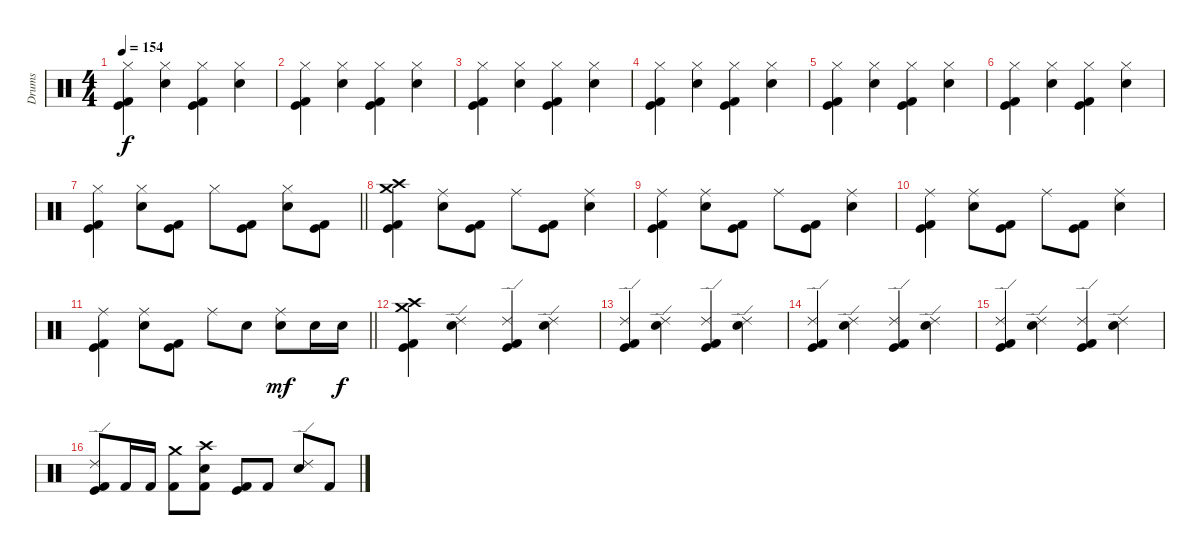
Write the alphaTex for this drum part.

\track ("Drums" "Drums") {instrument percussion}
\staff {score}
\articulation defaults
\ts (4 4)
\tempo 154
\clef neutral
\ks c
("Hi-Hat (closed)" "Kick (hit)" "Kick (hit) 2").4{dy f} ("Hi-Hat (closed)" "Snare (hit) 2").4 ("Hi-Hat (closed)" "Kick (hit)" "Kick (hit) 2").4 ("Hi-Hat (closed)" "Snare (hit) 2").4 |
("Hi-Hat (closed)" "Kick (hit)" "Kick (hit) 2").4 ("Hi-Hat (closed)" "Snare (hit) 2").4 ("Hi-Hat (closed)" "Kick (hit)" "Kick (hit) 2").4 ("Hi-Hat (closed)" "Snare (hit) 2").4 |
("Hi-Hat (closed)" "Kick (hit)" "Kick (hit) 2").4 ("Hi-Hat (closed)" "Snare (hit) 2").4 ("Hi-Hat (closed)" "Kick (hit)" "Kick (hit) 2").4 ("Hi-Hat (closed)" "Snare (hit) 2").4 |
("Hi-Hat (closed)" "Kick (hit)" "Kick (hit) 2").4 ("Hi-Hat (closed)" "Snare (hit) 2").4 ("Hi-Hat (closed)" "Kick (hit)" "Kick (hit) 2").4 ("Hi-Hat (closed)" "Snare (hit) 2").4 |
("Hi-Hat (closed)" "Kick (hit)" "Kick (hit) 2").4 ("Hi-Hat (closed)" "Snare (hit) 2").4 ("Hi-Hat (closed)" "Kick (hit)" "Kick (hit) 2").4 ("Hi-Hat (closed)" "Snare (hit) 2").4 |
("Hi-Hat (closed)" "Kick (hit)" "Kick (hit) 2").4 ("Hi-Hat (closed)" "Snare (hit) 2").4 ("Hi-Hat (closed)" "Kick (hit)" "Kick (hit) 2").4 ("Hi-Hat (closed)" "Snare (hit) 2").4 |
\barLineRight lightlight
("Hi-Hat (closed)" "Kick (hit)" "Kick (hit) 2").4 ("Hi-Hat (closed)" "Snare (hit) 2").8 ("Kick (hit)" "Kick (hit) 2").8 "Hi-Hat (closed)".8 ("Kick (hit)" "Kick (hit) 2").8 ("Hi-Hat (closed)" "Snare (hit) 2").8 ("Kick (hit)" "Kick (hit) 2").8 |
("Crash medium (hit)" "Crash high (hit)" "Kick (hit)" "Kick (hit) 2").4 ("Ride (middle)" "Snare (hit) 2").8 ("Kick (hit)" "Kick (hit) 2").8 "Ride (middle)".8 ("Kick (hit)" "Kick (hit) 2").8 ("Ride (middle)" "Snare (hit) 2").4 |
("Ride (middle)" "Kick (hit)" "Kick (hit) 2").4 ("Ride (middle)" "Snare (hit) 2").8 ("Kick (hit)" "Kick (hit) 2").8 "Ride (middle)".8 ("Kick (hit)" "Kick (hit) 2").8 ("Ride (middle)" "Snare (hit) 2").4 |
("Ride (middle)" "Kick (hit)" "Kick (hit) 2").4 ("Ride (middle)" "Snare (hit) 2").8 ("Kick (hit)" "Kick (hit) 2").8 "Ride (middle)".8 ("Kick (hit)" "Kick (hit) 2").8 ("Ride (middle)" "Snare (hit) 2").4 |
\barLineRight lightlight
("Ride (middle)" "Kick (hit)" "Kick (hit) 2").4 ("Ride (middle)" "Snare (hit) 2").8 ("Kick (hit)" "Kick (hit) 2").8 "Ride (middle)".8 "Snare (hit) 2".8 ("Ride (middle)" "Snare (hit) 2").8{dy mf} "Snare (hit) 2".16 "Snare (hit) 2".16{dy f} |
("Crash medium (hit)" "Crash high (hit)" "Kick (hit)" "Kick (hit) 2").4 ("Ride (edge) 2" "Snare (hit) 2").4 ("Ride (edge) 2" "Kick (hit)" "Kick (hit) 2").4 ("Ride (edge) 2" "Snare (hit) 2").4 |
("Ride (edge) 2" "Kick (hit)" "Kick (hit) 2").4 ("Ride (edge) 2" "Snare (hit) 2").4 ("Ride (edge) 2" "Kick (hit)" "Kick (hit) 2").4 ("Ride (edge) 2" "Snare (hit) 2").4 |
("Ride (edge) 2" "Kick (hit)" "Kick (hit) 2").4 ("Ride (edge) 2" "Snare (hit) 2").4 ("Ride (edge) 2" "Kick (hit)" "Kick (hit) 2").4 ("Ride (edge) 2" "Snare (hit) 2").4 |
("Ride (edge) 2" "Kick (hit)" "Kick (hit) 2").4 ("Ride (edge) 2" "Snare (hit) 2").4 ("Ride (edge) 2" "Kick (hit)" "Kick (hit) 2").4 ("Ride (edge) 2" "Snare (hit) 2").4 |
("Ride (edge) 2" "Kick (hit)" "Kick (hit) 2").8 "Kick (hit) 2".16 "Kick (hit) 2".16 ("Crash medium (hit)" "Kick (hit) 2").8 ("Crash high (hit)" "Snare (hit) 2" "Kick (hit) 2").8 ("Kick (hit)" "Kick (hit) 2").8 "Kick (hit) 2".8 ("Ride (edge) 2" "Snare (hit) 2").8 "Kick (hit) 2".8
